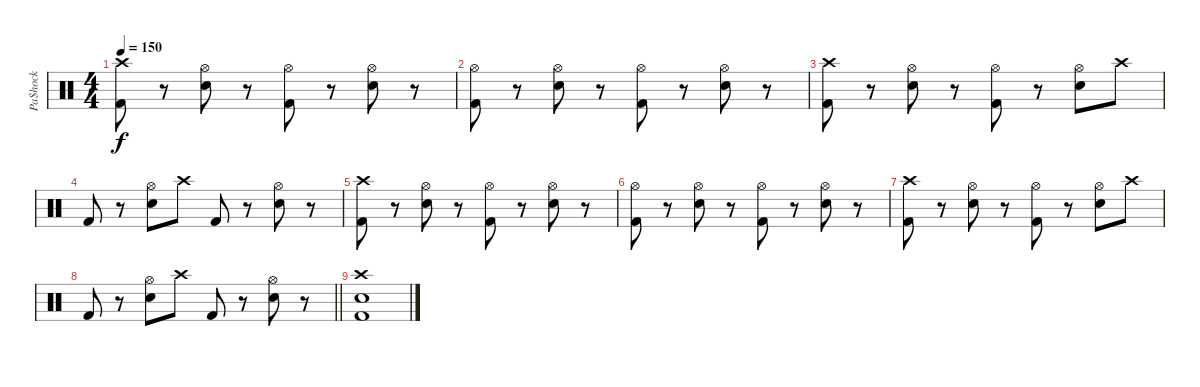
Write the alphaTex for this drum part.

\track ("Pa$hock" "Pa$hock") {instrument percussion}
\staff {score}
\articulation defaults
\ts (4 4)
\tempo 150
\clef neutral
\ks c
("Crash high (hit)" "Kick (hit) 2").8{dy f} r.8 ("Hi-Hat (open)" "Snare (hit) 2").8 r.8 ("Hi-Hat (open)" "Kick (hit) 2").8 r.8 ("Hi-Hat (open)" "Snare (hit) 2").8 r.8 |
("Hi-Hat (open)" "Kick (hit) 2").8 r.8 ("Hi-Hat (open)" "Snare (hit) 2").8 r.8 ("Hi-Hat (open)" "Kick (hit) 2").8 r.8 ("Hi-Hat (open)" "Snare (hit) 2").8 r.8 |
("Crash high (hit)" "Kick (hit) 2").8 r.8 ("Hi-Hat (open)" "Snare (hit) 2").8 r.8 ("Hi-Hat (open)" "Kick (hit) 2").8 r.8 ("Hi-Hat (open)" "Snare (hit) 2").8 "Crash high (hit)".8 |
"Kick (hit) 2".8 r.8 ("Hi-Hat (open)" "Snare (hit) 2").8 "Crash high (hit)".8 "Kick (hit) 2".8 r.8 ("Hi-Hat (open)" "Snare (hit) 2").8 r.8 |
("Crash high (hit)" "Kick (hit) 2").8 r.8 ("Hi-Hat (open)" "Snare (hit) 2").8 r.8 ("Hi-Hat (open)" "Kick (hit) 2").8 r.8 ("Hi-Hat (open)" "Snare (hit) 2").8 r.8 |
("Hi-Hat (open)" "Kick (hit) 2").8 r.8 ("Hi-Hat (open)" "Snare (hit) 2").8 r.8 ("Hi-Hat (open)" "Kick (hit) 2").8 r.8 ("Hi-Hat (open)" "Snare (hit) 2").8 r.8 |
("Crash high (hit)" "Kick (hit) 2").8 r.8 ("Hi-Hat (open)" "Snare (hit) 2").8 r.8 ("Hi-Hat (open)" "Kick (hit) 2").8 r.8 ("Hi-Hat (open)" "Snare (hit) 2").8 "Crash high (hit)".8 |
\barLineRight lightlight "Kick (hit) 2".8
r.8 ("Hi-Hat (open)" "Snare (hit) 2").8 "Crash high (hit)".8 "Kick (hit) 2".8 r.8 ("Hi-Hat (open)" "Snare (hit) 2").8 r.8 |
("Crash high (hit)" "Snare (hit) 2" "Kick (hit) 2").1
